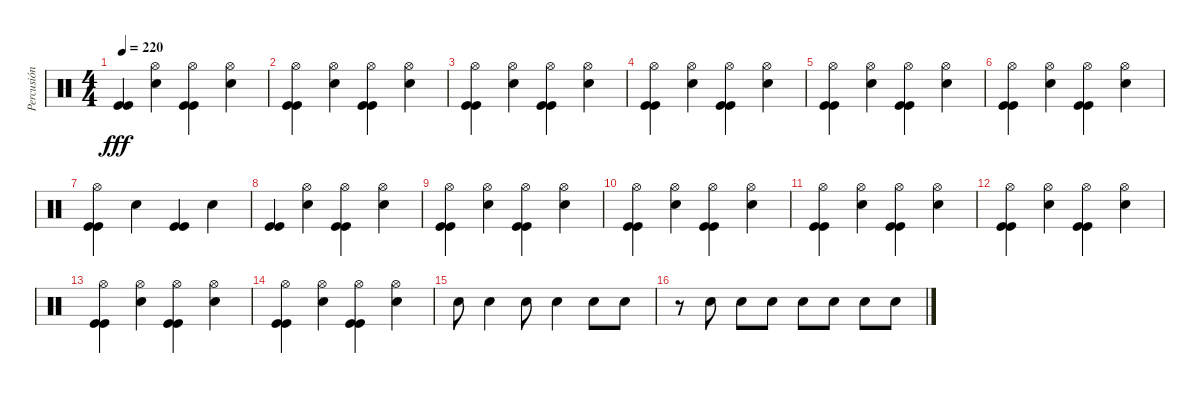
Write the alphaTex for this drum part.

\track ("Percusión" "Percusión") {instrument percussion}
\staff {score}
\articulation defaults
\ts (4 4)
\tempo 220
\clef neutral
\ks c
("Kick (hit)" "Kick (hit)").4{dy fff} ("Hi-Hat (open)" "Snare (hit) 2").4 ("Hi-Hat (open)" "Kick (hit)" "Kick (hit)").4 ("Hi-Hat (open)" "Snare (hit) 2").4 |
("Hi-Hat (open)" "Kick (hit)" "Kick (hit)").4 ("Hi-Hat (open)" "Snare (hit) 2").4 ("Hi-Hat (open)" "Kick (hit)" "Kick (hit)").4 ("Hi-Hat (open)" "Snare (hit) 2").4 |
("Hi-Hat (open)" "Kick (hit)" "Kick (hit)").4 ("Hi-Hat (open)" "Snare (hit) 2").4 ("Hi-Hat (open)" "Kick (hit)" "Kick (hit)").4 ("Hi-Hat (open)" "Snare (hit) 2").4 |
("Hi-Hat (open)" "Kick (hit)" "Kick (hit)").4 ("Hi-Hat (open)" "Snare (hit) 2").4 ("Hi-Hat (open)" "Kick (hit)" "Kick (hit)").4 ("Hi-Hat (open)" "Snare (hit) 2").4 |
("Hi-Hat (open)" "Kick (hit)" "Kick (hit)").4 ("Hi-Hat (open)" "Snare (hit) 2").4 ("Hi-Hat (open)" "Kick (hit)" "Kick (hit)").4 ("Hi-Hat (open)" "Snare (hit) 2").4 |
("Hi-Hat (open)" "Kick (hit)" "Kick (hit)").4 ("Hi-Hat (open)" "Snare (hit) 2").4 ("Hi-Hat (open)" "Kick (hit)" "Kick (hit)").4 ("Hi-Hat (open)" "Snare (hit) 2").4 |
("Hi-Hat (open)" "Kick (hit)" "Kick (hit)").4 "Snare (hit) 2".4 ("Kick (hit)" "Kick (hit)").4 "Snare (hit) 2".4 |
("Kick (hit)" "Kick (hit)").4 ("Hi-Hat (open)" "Snare (hit) 2").4 ("Hi-Hat (open)" "Kick (hit)" "Kick (hit)").4 ("Hi-Hat (open)" "Snare (hit) 2").4 |
("Hi-Hat (open)" "Kick (hit)" "Kick (hit)").4 ("Hi-Hat (open)" "Snare (hit) 2").4 ("Hi-Hat (open)" "Kick (hit)" "Kick (hit)").4 ("Hi-Hat (open)" "Snare (hit) 2").4 |
("Hi-Hat (open)" "Kick (hit)" "Kick (hit)").4 ("Hi-Hat (open)" "Snare (hit) 2").4 ("Hi-Hat (open)" "Kick (hit)" "Kick (hit)").4 ("Hi-Hat (open)" "Snare (hit) 2").4 |
("Hi-Hat (open)" "Kick (hit)" "Kick (hit)").4 ("Hi-Hat (open)" "Snare (hit) 2").4 ("Hi-Hat (open)" "Kick (hit)" "Kick (hit)").4 ("Hi-Hat (open)" "Snare (hit) 2").4 |
("Hi-Hat (open)" "Kick (hit)" "Kick (hit)").4 ("Hi-Hat (open)" "Snare (hit) 2").4 ("Hi-Hat (open)" "Kick (hit)" "Kick (hit)").4 ("Hi-Hat (open)" "Snare (hit) 2").4 |
("Hi-Hat (open)" "Kick (hit)" "Kick (hit)").4 ("Hi-Hat (open)" "Snare (hit) 2").4 ("Hi-Hat (open)" "Kick (hit)" "Kick (hit)").4 ("Hi-Hat (open)" "Snare (hit) 2").4 |
("Hi-Hat (open)" "Kick (hit)" "Kick (hit)").4 ("Hi-Hat (open)" "Snare (hit) 2").4 ("Hi-Hat (open)" "Kick (hit)" "Kick (hit)").4 ("Hi-Hat (open)" "Snare (hit) 2").4 |
"Snare (hit) 2".8 "Snare (hit) 2".4 "Snare (hit) 2".8 "Snare (hit) 2".4 "Snare (hit) 2".8 "Snare (hit) 2".8 |
r.8 "Snare (hit) 2".8 "Snare (hit) 2".8 "Snare (hit) 2".8 "Snare (hit) 2".8 "Snare (hit) 2".8 "Snare (hit) 2".8 "Snare (hit) 2".8
